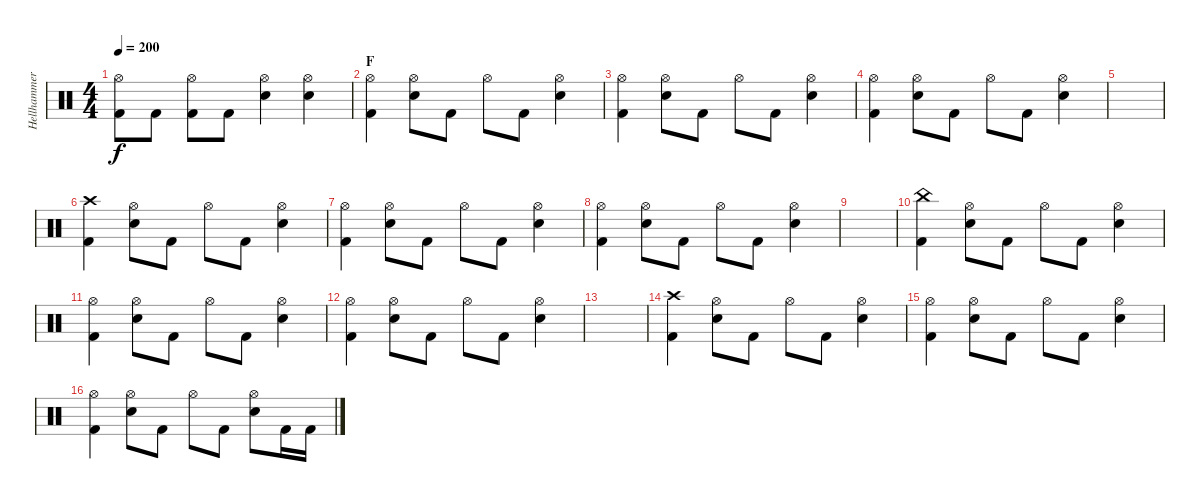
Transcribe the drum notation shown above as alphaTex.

\track ("Hellhammer" "Hellhammer") {instrument percussion}
\staff {score}
\articulation defaults
\ts (4 4)
\tempo 200
\clef neutral
\ks c
("Kick (hit) 2" "Hi-Hat (open)").8{dy f} "Kick (hit) 2".8 ("Kick (hit) 2" "Hi-Hat (open)").8 "Kick (hit) 2".8 ("Electric Snare (hit)" "Hi-Hat (open)").4 ("Electric Snare (hit)" "Hi-Hat (open)").4 |
\section ("" "F")
("Kick (hit) 2" "Hi-Hat (open)").4 ("Electric Snare (hit)" "Hi-Hat (open)").8 "Kick (hit) 2".8 "Hi-Hat (open)".8 "Kick (hit) 2".8 ("Electric Snare (hit)" "Hi-Hat (open)").4 |
("Kick (hit) 2" "Hi-Hat (open)").4 ("Electric Snare (hit)" "Hi-Hat (open)").8 "Kick (hit) 2".8 "Hi-Hat (open)".8 "Kick (hit) 2".8 ("Electric Snare (hit)" "Hi-Hat (open)").4 |
("Kick (hit) 2" "Hi-Hat (open)").4 ("Electric Snare (hit)" "Hi-Hat (open)").8 "Kick (hit) 2".8 "Hi-Hat (open)".8 "Kick (hit) 2".8 ("Electric Snare (hit)" "Hi-Hat (open)").4 |
|
("Kick (hit) 2" "Crash high (hit)").4 ("Electric Snare (hit)" "Hi-Hat (open)").8 "Kick (hit) 2".8 "Hi-Hat (open)".8 "Kick (hit) 2".8 ("Electric Snare (hit)" "Hi-Hat (open)").4 |
("Kick (hit) 2" "Hi-Hat (open)").4 ("Electric Snare (hit)" "Hi-Hat (open)").8 "Kick (hit) 2".8 "Hi-Hat (open)".8 "Kick (hit) 2".8 ("Electric Snare (hit)" "Hi-Hat (open)").4 |
("Kick (hit) 2" "Hi-Hat (open)").4 ("Electric Snare (hit)" "Hi-Hat (open)").8 "Kick (hit) 2".8 "Hi-Hat (open)".8 "Kick (hit) 2".8 ("Electric Snare (hit)" "Hi-Hat (open)").4 |
|
("Kick (hit) 2" "China (hit)").4 ("Electric Snare (hit)" "Hi-Hat (open)").8 "Kick (hit) 2".8 "Hi-Hat (open)".8 "Kick (hit) 2".8 ("Electric Snare (hit)" "Hi-Hat (open)").4 |
("Kick (hit) 2" "Hi-Hat (open)").4 ("Electric Snare (hit)" "Hi-Hat (open)").8 "Kick (hit) 2".8 "Hi-Hat (open)".8 "Kick (hit) 2".8 ("Electric Snare (hit)" "Hi-Hat (open)").4 |
("Kick (hit) 2" "Hi-Hat (open)").4 ("Electric Snare (hit)" "Hi-Hat (open)").8 "Kick (hit) 2".8 "Hi-Hat (open)".8 "Kick (hit) 2".8 ("Electric Snare (hit)" "Hi-Hat (open)").4 |
|
("Kick (hit) 2" "Crash high (hit)").4 ("Electric Snare (hit)" "Hi-Hat (open)").8 "Kick (hit) 2".8 "Hi-Hat (open)".8 "Kick (hit) 2".8 ("Electric Snare (hit)" "Hi-Hat (open)").4 |
("Kick (hit) 2" "Hi-Hat (open)").4 ("Electric Snare (hit)" "Hi-Hat (open)").8 "Kick (hit) 2".8 "Hi-Hat (open)".8 "Kick (hit) 2".8 ("Electric Snare (hit)" "Hi-Hat (open)").4 |
("Kick (hit) 2" "Hi-Hat (open)").4 ("Electric Snare (hit)" "Hi-Hat (open)").8 "Kick (hit) 2".8 "Hi-Hat (open)".8 "Kick (hit) 2".8 ("Electric Snare (hit)" "Hi-Hat (open)").8 "Kick (hit) 2".16 "Kick (hit) 2".16
